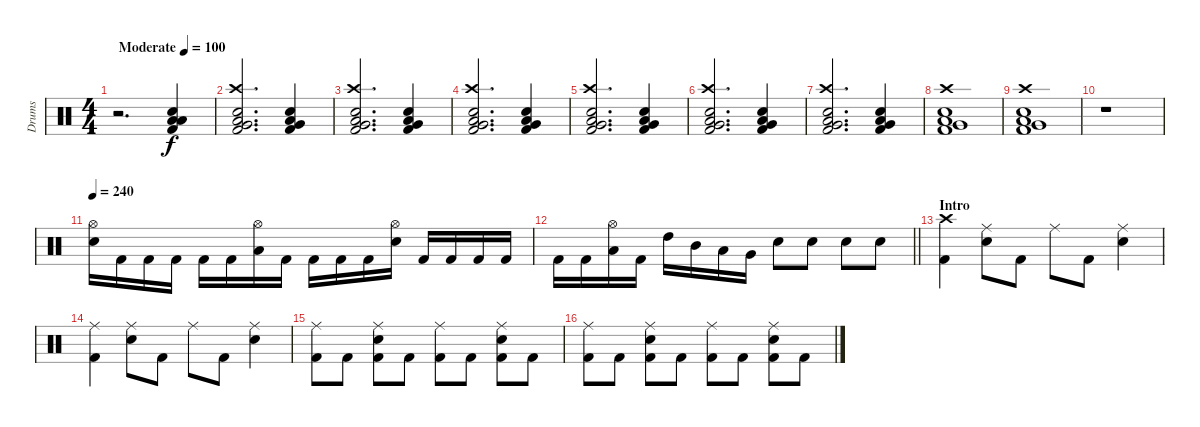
\track ("Drums" "Drums") {instrument percussion}
\staff {score}
\articulation defaults
\ts (4 4)
\tempo (100 "Moderate")
\clef neutral
\ks c
r.2{d dy f} ("Snare (hit) 2" "Low Tom (hit)" "Low Floor Tom (hit)" "Kick (hit) 2").4 |
("Crash high (hit)" "Snare (hit) 2" "Low Tom (hit)" "Very Low Tom (hit)" "Kick (hit) 2").2{d} ("Snare (hit) 2" "Low Tom (hit)" "Very Low Tom (hit)" "Kick (hit) 2").4 |
("Crash high (hit)" "Snare (hit) 2" "Low Tom (hit)" "Very Low Tom (hit)" "Kick (hit) 2").2{d} ("Snare (hit) 2" "Low Tom (hit)" "Very Low Tom (hit)" "Kick (hit) 2").4 |
("Crash high (hit)" "Snare (hit) 2" "Low Tom (hit)" "Very Low Tom (hit)" "Kick (hit) 2").2{d} ("Snare (hit) 2" "Low Tom (hit)" "Very Low Tom (hit)" "Kick (hit) 2").4 |
("Crash high (hit)" "Snare (hit) 2" "Low Tom (hit)" "Very Low Tom (hit)" "Kick (hit) 2").2{d} ("Snare (hit) 2" "Low Tom (hit)" "Very Low Tom (hit)" "Kick (hit) 2").4 |
("Crash high (hit)" "Snare (hit) 2" "Low Tom (hit)" "Very Low Tom (hit)" "Kick (hit) 2").2{d} ("Snare (hit) 2" "Low Tom (hit)" "Very Low Tom (hit)" "Kick (hit) 2").4 |
("Crash high (hit)" "Snare (hit) 2" "Low Tom (hit)" "Very Low Tom (hit)" "Kick (hit) 2").2{d} ("Snare (hit) 2" "Low Tom (hit)" "Very Low Tom (hit)" "Kick (hit) 2").4 |
("Crash high (hit)" "Snare (hit) 2" "Low Tom (hit)" "Very Low Tom (hit)" "Kick (hit) 2").1 |
("Crash high (hit)" "Snare (hit) 2" "Low Tom (hit)" "Very Low Tom (hit)" "Kick (hit) 2").1 |
r.1 |
\tempo 240
("Hi-Hat (open)" "Snare (hit) 2").16 "Kick (hit) 2".16 "Kick (hit) 2".16 "Kick (hit) 2".16 "Kick (hit) 2".16 "Kick (hit) 2".16 ("Hi-Hat (open)" "Low Tom (hit)").16 "Kick (hit) 2".16 "Kick (hit) 2".16 "Kick (hit) 2".16 "Kick (hit) 2".16 ("Hi-Hat (open)" "Snare (hit) 2").16 "Kick (hit) 2".16 "Kick (hit) 2".16 "Kick (hit) 2".16 "Kick (hit) 2".16 |
\barLineRight lightlight "Kick (hit) 2".16 "Kick (hit) 2".16
("Hi-Hat (open)" "Low Tom (hit)").16 "Kick (hit) 2".16 "High Tom (hit)".16 "Mid Tom (hit)".16 "Low Tom (hit)".16 "Very Low Tom (hit)".16 "Snare (hit) 2".8 "Snare (hit) 2".8 "Snare (hit) 2".8 "Snare (hit) 2".8 |
\section ("" "Intro")
("Crash high (hit)" "Kick (hit) 2").4 ("Ride (middle)" "Snare (hit) 2").8 "Kick (hit) 2".8 "Ride (middle)".8 "Kick (hit) 2".8 ("Ride (middle)" "Snare (hit) 2").4 |
("Ride (middle)" "Kick (hit) 2").4 ("Ride (middle)" "Snare (hit) 2").8 "Kick (hit) 2".8 "Ride (middle)".8 "Kick (hit) 2".8 ("Ride (middle)" "Snare (hit) 2").4 |
("Ride (middle)" "Kick (hit) 2").8 "Kick (hit) 2".8 ("Ride (middle)" "Snare (hit) 2" "Kick (hit) 2").8 "Kick (hit) 2".8 ("Ride (middle)" "Kick (hit) 2").8 "Kick (hit) 2".8 ("Ride (middle)" "Snare (hit) 2" "Kick (hit) 2").8 "Kick (hit) 2".8 |
("Ride (middle)" "Kick (hit) 2").8 "Kick (hit) 2".8 ("Ride (middle)" "Snare (hit) 2" "Kick (hit) 2").8 "Kick (hit) 2".8 ("Ride (middle)" "Kick (hit) 2").8 "Kick (hit) 2".8 ("Ride (middle)" "Snare (hit) 2" "Kick (hit) 2").8 "Kick (hit) 2".8
